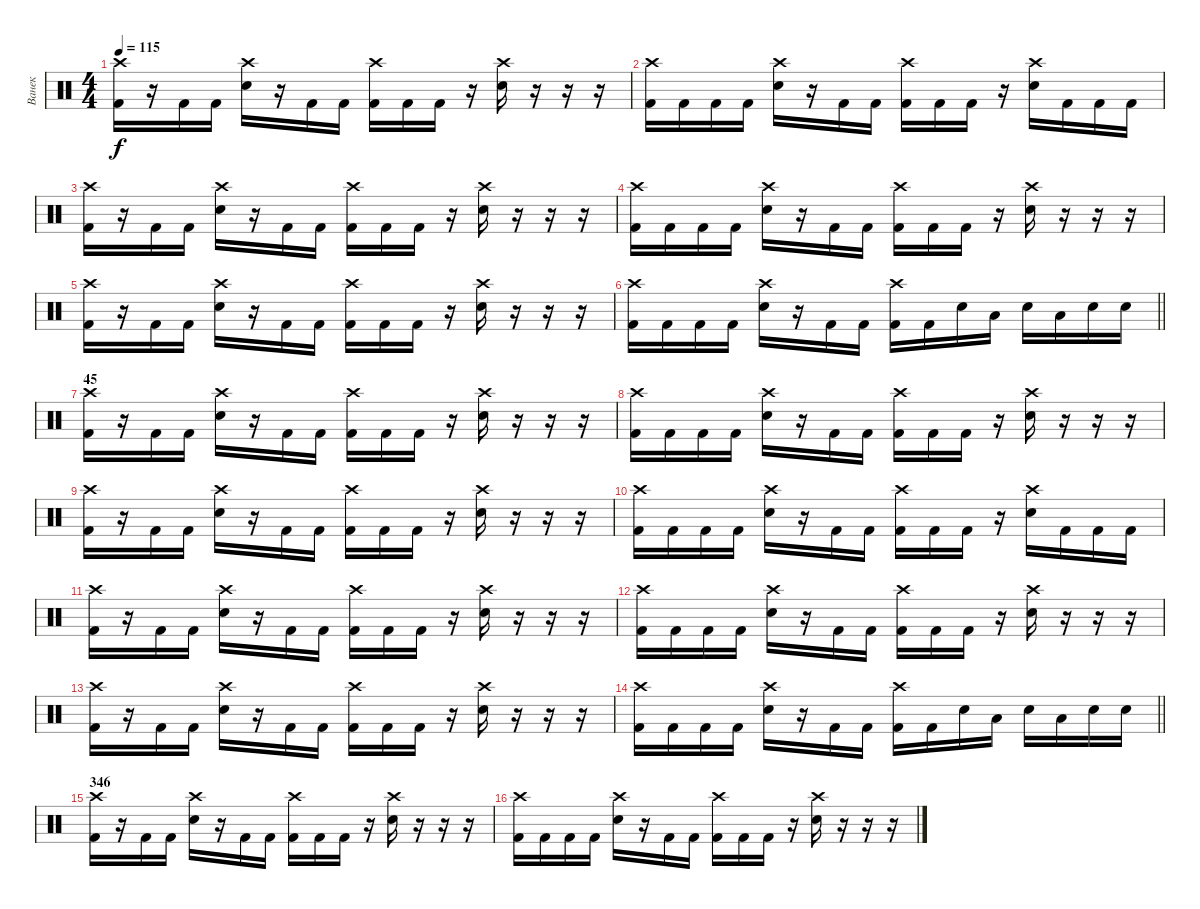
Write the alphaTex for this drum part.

\track ("Ванек" "Ванек") {instrument percussion}
\staff {score}
\articulation defaults
\ts (4 4)
\tempo 115
\clef neutral
\ks c
("Crash high (hit)" "Kick (hit) 2").16{dy f} r.16 "Kick (hit) 2".16 "Kick (hit) 2".16 ("Crash high (hit)" "Snare (hit) 2").16 r.16 "Kick (hit) 2".16 "Kick (hit) 2".16 ("Crash high (hit)" "Kick (hit) 2").16 "Kick (hit) 2".16 "Kick (hit) 2".16 r.16 ("Crash high (hit)" "Snare (hit) 2").16 r.16 r.16 r.16 |
("Crash high (hit)" "Kick (hit) 2").16 "Kick (hit) 2".16 "Kick (hit) 2".16 "Kick (hit) 2".16 ("Crash high (hit)" "Snare (hit) 2").16 r.16 "Kick (hit) 2".16 "Kick (hit) 2".16 ("Crash high (hit)" "Kick (hit) 2").16 "Kick (hit) 2".16 "Kick (hit) 2".16 r.16 ("Crash high (hit)" "Snare (hit) 2").16 "Kick (hit) 2".16 "Kick (hit) 2".16 "Kick (hit) 2".16 |
("Crash high (hit)" "Kick (hit) 2").16 r.16 "Kick (hit) 2".16 "Kick (hit) 2".16 ("Crash high (hit)" "Snare (hit) 2").16 r.16 "Kick (hit) 2".16 "Kick (hit) 2".16 ("Crash high (hit)" "Kick (hit) 2").16 "Kick (hit) 2".16 "Kick (hit) 2".16 r.16 ("Crash high (hit)" "Snare (hit) 2").16 r.16 r.16 r.16 |
("Crash high (hit)" "Kick (hit) 2").16 "Kick (hit) 2".16 "Kick (hit) 2".16 "Kick (hit) 2".16 ("Crash high (hit)" "Snare (hit) 2").16 r.16 "Kick (hit) 2".16 "Kick (hit) 2".16 ("Crash high (hit)" "Kick (hit) 2").16 "Kick (hit) 2".16 "Kick (hit) 2".16 r.16 ("Crash high (hit)" "Snare (hit) 2").16 r.16 r.16 r.16 |
("Crash high (hit)" "Kick (hit) 2").16 r.16 "Kick (hit) 2".16 "Kick (hit) 2".16 ("Crash high (hit)" "Snare (hit) 2").16 r.16 "Kick (hit) 2".16 "Kick (hit) 2".16 ("Crash high (hit)" "Kick (hit) 2").16 "Kick (hit) 2".16 "Kick (hit) 2".16 r.16 ("Crash high (hit)" "Snare (hit) 2").16 r.16 r.16 r.16 |
\barLineRight lightlight
("Crash high (hit)" "Kick (hit) 2").16 "Kick (hit) 2".16 "Kick (hit) 2".16 "Kick (hit) 2".16 ("Crash high (hit)" "Snare (hit) 2").16 r.16 "Kick (hit) 2".16 "Kick (hit) 2".16 ("Crash high (hit)" "Kick (hit) 2").16 "Kick (hit) 2".16 "Snare (hit) 2".16 "Low Floor Tom (hit)".16 "Snare (hit) 2".16 "Low Floor Tom (hit)".16 "Snare (hit) 2".16 "Snare (hit) 2".16 |
\section ("" "45")
("Crash high (hit)" "Kick (hit) 2").16 r.16 "Kick (hit) 2".16 "Kick (hit) 2".16 ("Crash high (hit)" "Snare (hit) 2").16 r.16 "Kick (hit) 2".16 "Kick (hit) 2".16 ("Crash high (hit)" "Kick (hit) 2").16 "Kick (hit) 2".16 "Kick (hit) 2".16 r.16 ("Crash high (hit)" "Snare (hit) 2").16 r.16 r.16 r.16 |
("Crash high (hit)" "Kick (hit) 2").16 "Kick (hit) 2".16 "Kick (hit) 2".16 "Kick (hit) 2".16 ("Crash high (hit)" "Snare (hit) 2").16 r.16 "Kick (hit) 2".16 "Kick (hit) 2".16 ("Crash high (hit)" "Kick (hit) 2").16 "Kick (hit) 2".16 "Kick (hit) 2".16 r.16 ("Crash high (hit)" "Snare (hit) 2").16 r.16 r.16 r.16 |
("Crash high (hit)" "Kick (hit) 2").16 r.16 "Kick (hit) 2".16 "Kick (hit) 2".16 ("Crash high (hit)" "Snare (hit) 2").16 r.16 "Kick (hit) 2".16 "Kick (hit) 2".16 ("Crash high (hit)" "Kick (hit) 2").16 "Kick (hit) 2".16 "Kick (hit) 2".16 r.16 ("Crash high (hit)" "Snare (hit) 2").16 r.16 r.16 r.16 |
("Crash high (hit)" "Kick (hit) 2").16 "Kick (hit) 2".16 "Kick (hit) 2".16 "Kick (hit) 2".16 ("Crash high (hit)" "Snare (hit) 2").16 r.16 "Kick (hit) 2".16 "Kick (hit) 2".16 ("Crash high (hit)" "Kick (hit) 2").16 "Kick (hit) 2".16 "Kick (hit) 2".16 r.16 ("Crash high (hit)" "Snare (hit) 2").16 "Kick (hit) 2".16 "Kick (hit) 2".16 "Kick (hit) 2".16 |
("Crash high (hit)" "Kick (hit) 2").16 r.16 "Kick (hit) 2".16 "Kick (hit) 2".16 ("Crash high (hit)" "Snare (hit) 2").16 r.16 "Kick (hit) 2".16 "Kick (hit) 2".16 ("Crash high (hit)" "Kick (hit) 2").16 "Kick (hit) 2".16 "Kick (hit) 2".16 r.16 ("Crash high (hit)" "Snare (hit) 2").16 r.16 r.16 r.16 |
("Crash high (hit)" "Kick (hit) 2").16 "Kick (hit) 2".16 "Kick (hit) 2".16 "Kick (hit) 2".16 ("Crash high (hit)" "Snare (hit) 2").16 r.16 "Kick (hit) 2".16 "Kick (hit) 2".16 ("Crash high (hit)" "Kick (hit) 2").16 "Kick (hit) 2".16 "Kick (hit) 2".16 r.16 ("Crash high (hit)" "Snare (hit) 2").16 r.16 r.16 r.16 |
("Crash high (hit)" "Kick (hit) 2").16 r.16 "Kick (hit) 2".16 "Kick (hit) 2".16 ("Crash high (hit)" "Snare (hit) 2").16 r.16 "Kick (hit) 2".16 "Kick (hit) 2".16 ("Crash high (hit)" "Kick (hit) 2").16 "Kick (hit) 2".16 "Kick (hit) 2".16 r.16 ("Crash high (hit)" "Snare (hit) 2").16 r.16 r.16 r.16 |
\barLineRight lightlight
("Crash high (hit)" "Kick (hit) 2").16 "Kick (hit) 2".16 "Kick (hit) 2".16 "Kick (hit) 2".16 ("Crash high (hit)" "Snare (hit) 2").16 r.16 "Kick (hit) 2".16 "Kick (hit) 2".16 ("Crash high (hit)" "Kick (hit) 2").16 "Kick (hit) 2".16 "Snare (hit) 2".16 "Low Floor Tom (hit)".16 "Snare (hit) 2".16 "Low Floor Tom (hit)".16 "Snare (hit) 2".16 "Snare (hit) 2".16 |
\section ("" "346")
("Crash high (hit)" "Kick (hit) 2").16 r.16 "Kick (hit) 2".16 "Kick (hit) 2".16 ("Crash high (hit)" "Snare (hit) 2").16 r.16 "Kick (hit) 2".16 "Kick (hit) 2".16 ("Crash high (hit)" "Kick (hit) 2").16 "Kick (hit) 2".16 "Kick (hit) 2".16 r.16 ("Crash high (hit)" "Snare (hit) 2").16 r.16 r.16 r.16 |
("Crash high (hit)" "Kick (hit) 2").16 "Kick (hit) 2".16 "Kick (hit) 2".16 "Kick (hit) 2".16 ("Crash high (hit)" "Snare (hit) 2").16 r.16 "Kick (hit) 2".16 "Kick (hit) 2".16 ("Crash high (hit)" "Kick (hit) 2").16 "Kick (hit) 2".16 "Kick (hit) 2".16 r.16 ("Crash high (hit)" "Snare (hit) 2").16 r.16 r.16 r.16
